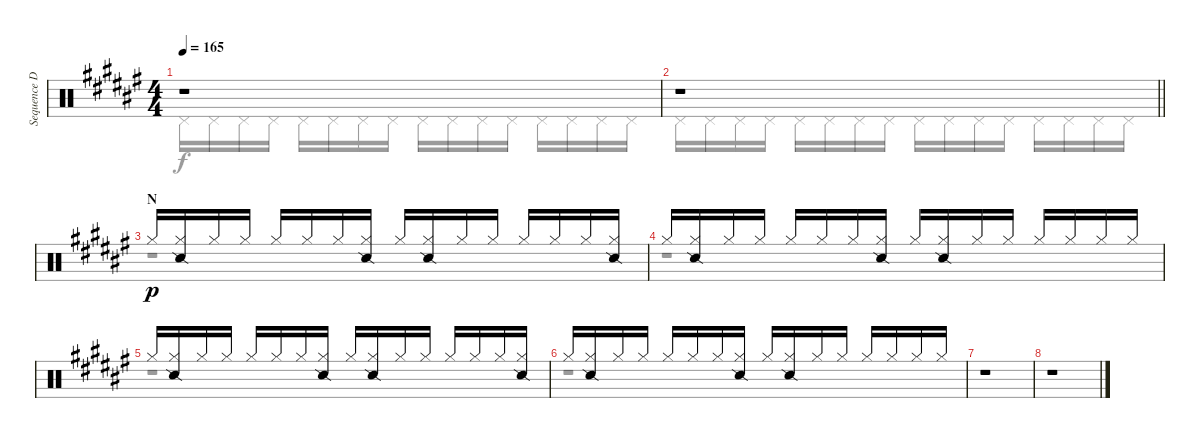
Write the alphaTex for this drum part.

\track ("Sequence Drums" "Sequence D") {instrument percussion}
\staff {score}
\articulation defaults
\voice
\ts (4 4)
\tempo 165
\clef neutral
\ks f#
r.1{dy p} |
\barLineRight lightlight
r.1 |
\section ("" "N")
"Hi-Hat (closed)".16 ("Hi-Hat (closed)" "Snare (side stick) 2").16 "Hi-Hat (closed)".16 "Hi-Hat (closed)".16 "Hi-Hat (closed)".16 "Hi-Hat (closed)".16 "Hi-Hat (closed)".16 ("Hi-Hat (closed)" "Snare (side stick) 2").16 "Hi-Hat (closed)".16 ("Hi-Hat (closed)" "Snare (side stick) 2").16 "Hi-Hat (closed)".16 "Hi-Hat (closed)".16 "Hi-Hat (closed)".16 "Hi-Hat (closed)".16 "Hi-Hat (closed)".16 ("Hi-Hat (closed)" "Snare (side stick) 2").16 |
"Hi-Hat (closed)".16 ("Hi-Hat (closed)" "Snare (side stick) 2").16 "Hi-Hat (closed)".16 "Hi-Hat (closed)".16 "Hi-Hat (closed)".16 "Hi-Hat (closed)".16 "Hi-Hat (closed)".16 ("Hi-Hat (closed)" "Snare (side stick) 2").16 "Hi-Hat (closed)".16 ("Hi-Hat (closed)" "Snare (side stick) 2").16 "Hi-Hat (closed)".16 "Hi-Hat (closed)".16 "Hi-Hat (closed)".16 "Hi-Hat (closed)".16 "Hi-Hat (closed)".16 "Hi-Hat (closed)".16 |
"Hi-Hat (closed)".16 ("Hi-Hat (closed)" "Snare (side stick) 2").16 "Hi-Hat (closed)".16 "Hi-Hat (closed)".16 "Hi-Hat (closed)".16 "Hi-Hat (closed)".16 "Hi-Hat (closed)".16 ("Hi-Hat (closed)" "Snare (side stick) 2").16 "Hi-Hat (closed)".16 ("Hi-Hat (closed)" "Snare (side stick) 2").16 "Hi-Hat (closed)".16 "Hi-Hat (closed)".16 "Hi-Hat (closed)".16 "Hi-Hat (closed)".16 "Hi-Hat (closed)".16 ("Hi-Hat (closed)" "Snare (side stick) 2").16 |
"Hi-Hat (closed)".16 ("Hi-Hat (closed)" "Snare (side stick) 2").16 "Hi-Hat (closed)".16 "Hi-Hat (closed)".16 "Hi-Hat (closed)".16 "Hi-Hat (closed)".16 "Hi-Hat (closed)".16 ("Hi-Hat (closed)" "Snare (side stick) 2").16 "Hi-Hat (closed)".16 ("Hi-Hat (closed)" "Snare (side stick) 2").16 "Hi-Hat (closed)".16 "Hi-Hat (closed)".16 "Hi-Hat (closed)".16 "Hi-Hat (closed)".16 "Hi-Hat (closed)".16 "Hi-Hat (closed)".16 |
r.1 |
r.1
\voice
\clef neutral
\ottava regular
\simile none
\ks f# "Pedal Hi-Hat (hit)".16{dy f} "Pedal Hi-Hat (hit)".16 "Pedal Hi-Hat (hit)".16 "Pedal Hi-Hat (hit)".16 "Pedal Hi-Hat (hit)".16 "Pedal Hi-Hat (hit)".16 "Pedal Hi-Hat (hit)".16 "Pedal Hi-Hat (hit)".16 "Pedal Hi-Hat (hit)".16 "Pedal Hi-Hat (hit)".16 "Pedal Hi-Hat (hit)".16 "Pedal Hi-Hat (hit)".16 "Pedal Hi-Hat (hit)".16 "Pedal Hi-Hat (hit)".16 "Pedal Hi-Hat (hit)".16 "Pedal Hi-Hat (hit)".16
|
\barLineRight lightlight "Pedal Hi-Hat (hit)".16 "Pedal Hi-Hat (hit)".16 "Pedal Hi-Hat (hit)".16 "Pedal Hi-Hat (hit)".16 "Pedal Hi-Hat (hit)".16 "Pedal Hi-Hat (hit)".16 "Pedal Hi-Hat (hit)".16 "Pedal Hi-Hat (hit)".16 "Pedal Hi-Hat (hit)".16 "Pedal Hi-Hat (hit)".16 "Pedal Hi-Hat (hit)".16 "Pedal Hi-Hat (hit)".16 "Pedal Hi-Hat (hit)".16 "Pedal Hi-Hat (hit)".16 "Pedal Hi-Hat (hit)".16 "Pedal Hi-Hat (hit)".16
|
r.1 |
r.1 |
r.1 |
r.1 |
|
